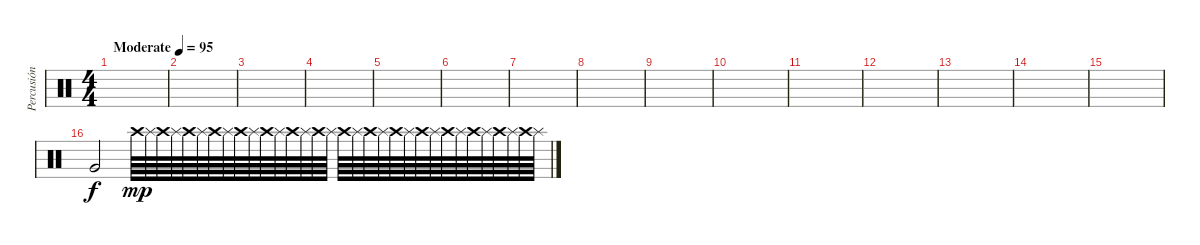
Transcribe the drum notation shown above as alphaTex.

\track ("Percusión" "Percusión") {instrument percussion}
\staff {score}
\articulation defaults
\ts (4 4)
\tempo (95 "Moderate")
\clef neutral
\ks c
|
|
|
|
|
|
|
|
|
|
|
|
|
|
|
"Very Low Tom (hit)".2{volume 11} "Crash high (hit)".64{dy mp} "Splash (hit)".64 "Crash high (hit)".64 "Splash (hit)".64 "Crash high (hit)".64 "Splash (hit)".64 "Crash high (hit)".64 "Splash (hit)".64 "Crash high (hit)".64 "Splash (hit)".64 "Crash high (hit)".64 "Splash (hit)".64 "Crash high (hit)".64 "Splash (hit)".64 "Crash high (hit)".64 "Splash (hit)".64 "Crash high (hit)".64 "Splash (hit)".64 "Crash high (hit)".64 "Splash (hit)".64 "Crash high (hit)".64 "Splash (hit)".64 "Crash high (hit)".64 "Splash (hit)".64 "Crash high (hit)".64 "Splash (hit)".64 "Crash high (hit)".64 "Splash (hit)".64 "Crash high (hit)".64 "Splash (hit)".64 "Crash high (hit)".64 "Splash (hit)".64
